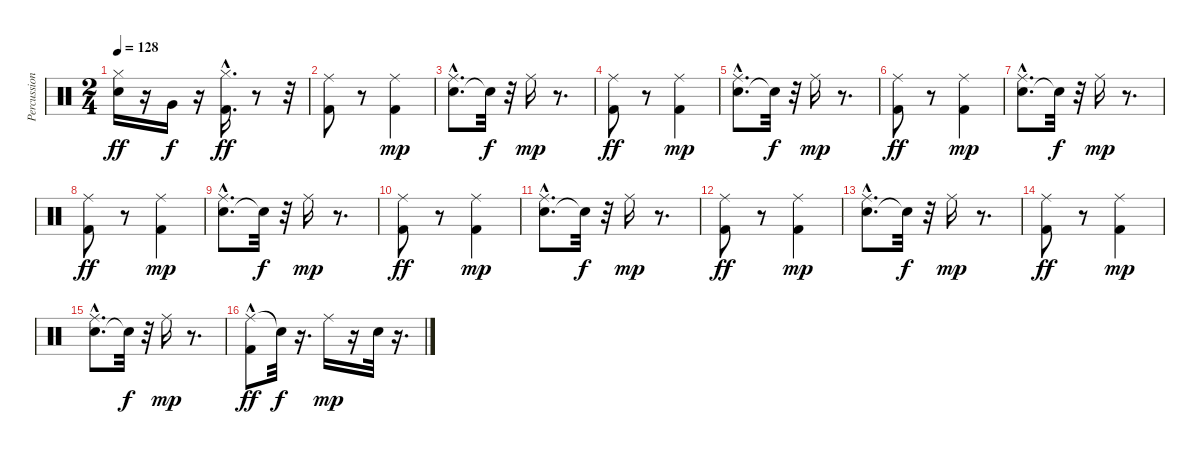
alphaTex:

\track ("Percussion" "Percussion") {instrument percussion}
\staff {score}
\articulation defaults
\ts (2 4)
\tempo 128
\clef neutral
\ks c
("Hi-Hat (closed)" "Electric Snare (hit)").16{dy ff} r.16 "Very Low Tom (hit)".16{dy f} r.16 ("Kick (hit) 2"{hac} "Hi-Hat (closed)").16{d dy ff} r.8 r.32 |
("Ride (middle)" "Kick (hit) 2").8 r.8 ("Kick (hit) 2" "Ride (middle)").4{dy mp} |
("Electric Snare (hit)"{hac} "Ride (middle)").8{d} "Snare (hit)"{t}.32{dy f} r.32 "Ride (middle)".16{dy mp} r.8{d} |
("Ride (middle)" "Kick (hit) 2").8{dy ff} r.8 ("Kick (hit) 2" "Ride (middle)").4{dy mp} |
("Electric Snare (hit)"{hac} "Ride (middle)").8{d} "Snare (hit)"{t}.32{dy f} r.32 "Ride (middle)".16{dy mp} r.8{d} |
("Ride (middle)" "Kick (hit) 2").8{dy ff} r.8 ("Kick (hit) 2" "Ride (middle)").4{dy mp} |
("Electric Snare (hit)"{hac} "Ride (middle)").8{d} "Snare (hit)"{t}.32{dy f} r.32 "Ride (middle)".16{dy mp} r.8{d} |
("Ride (middle)" "Kick (hit) 2").8{dy ff} r.8 ("Kick (hit) 2" "Ride (middle)").4{dy mp} |
("Electric Snare (hit)"{hac} "Ride (middle)").8{d} "Snare (hit)"{t}.32{dy f} r.32 "Ride (middle)".16{dy mp} r.8{d} |
("Ride (middle)" "Kick (hit) 2").8{dy ff} r.8 ("Kick (hit) 2" "Ride (middle)").4{dy mp} |
("Electric Snare (hit)"{hac} "Ride (middle)").8{d} "Snare (hit)"{t}.32{dy f} r.32 "Ride (middle)".16{dy mp} r.8{d} |
("Ride (middle)" "Kick (hit) 2").8{dy ff} r.8 ("Kick (hit) 2" "Ride (middle)").4{dy mp} |
("Electric Snare (hit)"{hac} "Ride (middle)").8{d} "Snare (hit)"{t}.32{dy f} r.32 "Ride (middle)".16{dy mp} r.8{d} |
("Ride (middle)" "Kick (hit) 2").8{dy ff} r.8 ("Kick (hit) 2" "Ride (middle)").4{dy mp} |
("Electric Snare (hit)"{hac} "Ride (middle)").8{d} "Snare (hit)"{t}.32{dy f} r.32 "Ride (middle)".16{dy mp} r.8{d} |
("Ride (middle)"{hac} "Kick (hit) 2").8{dy ff} "Snare (hit)"{t}.32{dy f} r.16{d} "Ride (middle)".16{dy mp} r.16 "Electric Snare (hit)".32 r.16{d}
